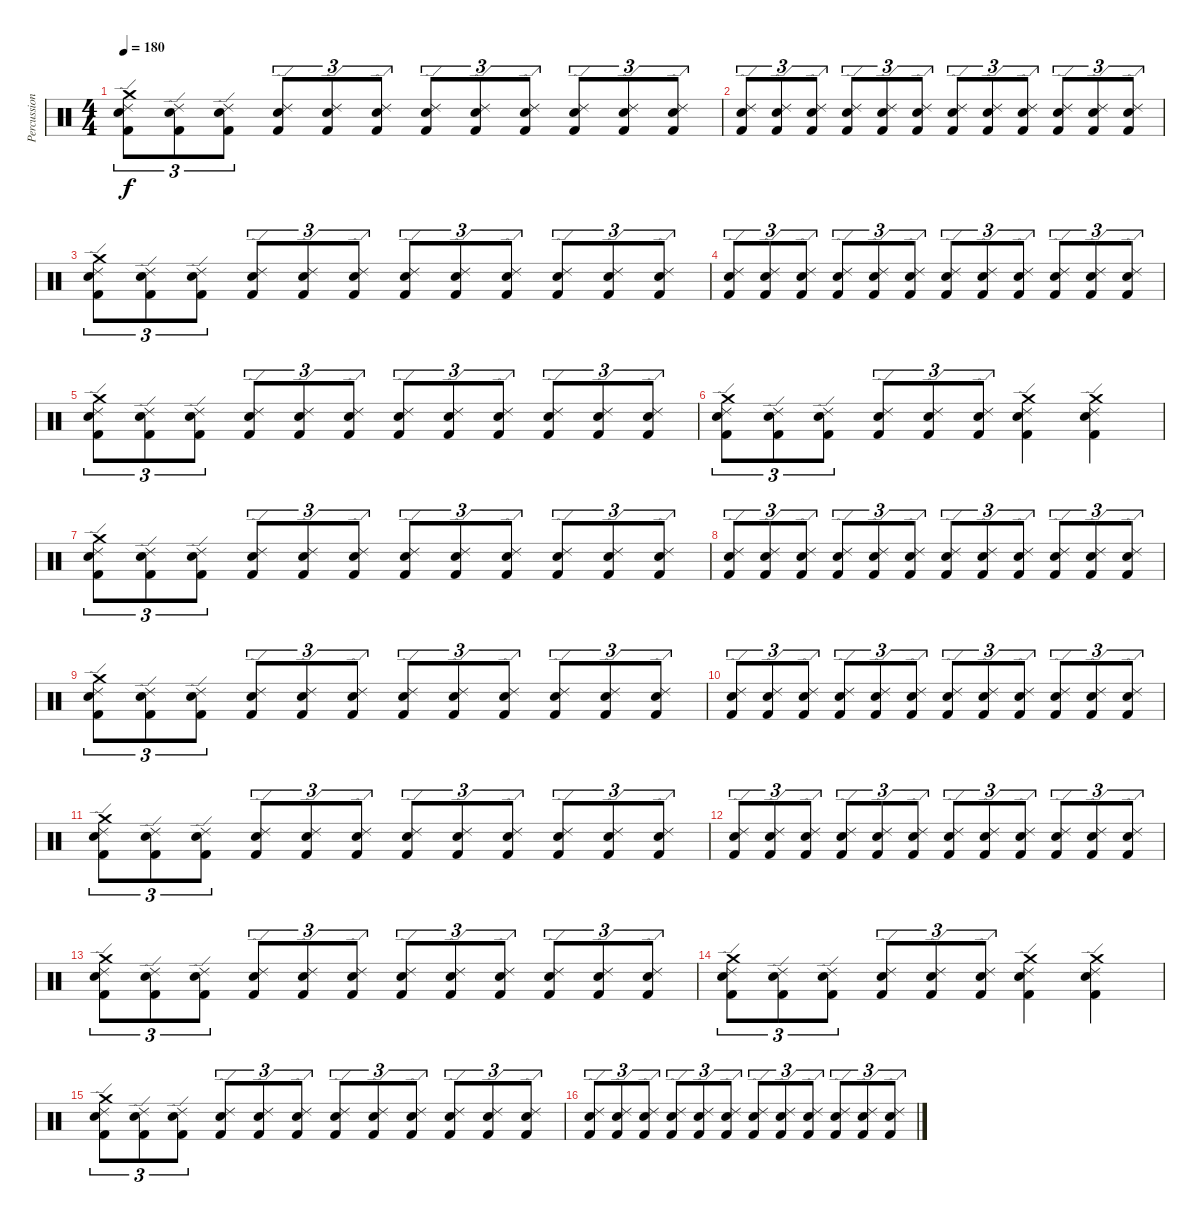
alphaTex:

\track ("Percussioni" "Percussion") {instrument percussion}
\staff {score}
\articulation defaults
\ts (4 4)
\tempo 180
\clef neutral
\ks c
("Crash medium (hit)" "Ride (edge) 2" "Snare (hit) 2" "Kick (hit) 2").8{tu (3 2) dy f} ("Ride (edge) 2" "Snare (hit) 2" "Kick (hit) 2").8{tu (3 2)} ("Ride (edge) 2" "Snare (hit) 2" "Kick (hit) 2").8{tu (3 2)} ("Ride (edge) 2" "Snare (hit) 2" "Kick (hit) 2").8{tu (3 2)} ("Ride (edge) 2" "Snare (hit) 2" "Kick (hit) 2").8{tu (3 2)} ("Ride (edge) 2" "Snare (hit) 2" "Kick (hit) 2").8{tu (3 2)} ("Ride (edge) 2" "Snare (hit) 2" "Kick (hit) 2").8{tu (3 2)} ("Ride (edge) 2" "Snare (hit) 2" "Kick (hit) 2").8{tu (3 2)} ("Ride (edge) 2" "Snare (hit) 2" "Kick (hit) 2").8{tu (3 2)} ("Ride (edge) 2" "Snare (hit) 2" "Kick (hit) 2").8{tu (3 2)} ("Ride (edge) 2" "Snare (hit) 2" "Kick (hit) 2").8{tu (3 2)} ("Ride (edge) 2" "Snare (hit) 2" "Kick (hit) 2").8{tu (3 2)} |
("Ride (edge) 2" "Snare (hit) 2" "Kick (hit) 2").8{tu (3 2)} ("Ride (edge) 2" "Snare (hit) 2" "Kick (hit) 2").8{tu (3 2)} ("Ride (edge) 2" "Snare (hit) 2" "Kick (hit) 2").8{tu (3 2)} ("Ride (edge) 2" "Snare (hit) 2" "Kick (hit) 2").8{tu (3 2)} ("Ride (edge) 2" "Snare (hit) 2" "Kick (hit) 2").8{tu (3 2)} ("Ride (edge) 2" "Snare (hit) 2" "Kick (hit) 2").8{tu (3 2)} ("Ride (edge) 2" "Snare (hit) 2" "Kick (hit) 2").8{tu (3 2)} ("Ride (edge) 2" "Snare (hit) 2" "Kick (hit) 2").8{tu (3 2)} ("Ride (edge) 2" "Snare (hit) 2" "Kick (hit) 2").8{tu (3 2)} ("Ride (edge) 2" "Snare (hit) 2" "Kick (hit) 2").8{tu (3 2)} ("Ride (edge) 2" "Snare (hit) 2" "Kick (hit) 2").8{tu (3 2)} ("Ride (edge) 2" "Snare (hit) 2" "Kick (hit) 2").8{tu (3 2)} |
("Crash medium (hit)" "Ride (edge) 2" "Snare (hit) 2" "Kick (hit) 2").8{tu (3 2)} ("Ride (edge) 2" "Snare (hit) 2" "Kick (hit) 2").8{tu (3 2)} ("Ride (edge) 2" "Snare (hit) 2" "Kick (hit) 2").8{tu (3 2)} ("Ride (edge) 2" "Snare (hit) 2" "Kick (hit) 2").8{tu (3 2)} ("Ride (edge) 2" "Snare (hit) 2" "Kick (hit) 2").8{tu (3 2)} ("Ride (edge) 2" "Snare (hit) 2" "Kick (hit) 2").8{tu (3 2)} ("Ride (edge) 2" "Snare (hit) 2" "Kick (hit) 2").8{tu (3 2)} ("Ride (edge) 2" "Snare (hit) 2" "Kick (hit) 2").8{tu (3 2)} ("Ride (edge) 2" "Snare (hit) 2" "Kick (hit) 2").8{tu (3 2)} ("Ride (edge) 2" "Snare (hit) 2" "Kick (hit) 2").8{tu (3 2)} ("Ride (edge) 2" "Snare (hit) 2" "Kick (hit) 2").8{tu (3 2)} ("Ride (edge) 2" "Snare (hit) 2" "Kick (hit) 2").8{tu (3 2)} |
("Ride (edge) 2" "Snare (hit) 2" "Kick (hit) 2").8{tu (3 2)} ("Ride (edge) 2" "Snare (hit) 2" "Kick (hit) 2").8{tu (3 2)} ("Ride (edge) 2" "Snare (hit) 2" "Kick (hit) 2").8{tu (3 2)} ("Ride (edge) 2" "Snare (hit) 2" "Kick (hit) 2").8{tu (3 2)} ("Ride (edge) 2" "Snare (hit) 2" "Kick (hit) 2").8{tu (3 2)} ("Ride (edge) 2" "Snare (hit) 2" "Kick (hit) 2").8{tu (3 2)} ("Ride (edge) 2" "Snare (hit) 2" "Kick (hit) 2").8{tu (3 2)} ("Ride (edge) 2" "Snare (hit) 2" "Kick (hit) 2").8{tu (3 2)} ("Ride (edge) 2" "Snare (hit) 2" "Kick (hit) 2").8{tu (3 2)} ("Ride (edge) 2" "Snare (hit) 2" "Kick (hit) 2").8{tu (3 2)} ("Ride (edge) 2" "Snare (hit) 2" "Kick (hit) 2").8{tu (3 2)} ("Ride (edge) 2" "Snare (hit) 2" "Kick (hit) 2").8{tu (3 2)} |
("Crash medium (hit)" "Ride (edge) 2" "Snare (hit) 2" "Kick (hit) 2").8{tu (3 2)} ("Ride (edge) 2" "Snare (hit) 2" "Kick (hit) 2").8{tu (3 2)} ("Ride (edge) 2" "Snare (hit) 2" "Kick (hit) 2").8{tu (3 2)} ("Ride (edge) 2" "Snare (hit) 2" "Kick (hit) 2").8{tu (3 2)} ("Ride (edge) 2" "Snare (hit) 2" "Kick (hit) 2").8{tu (3 2)} ("Ride (edge) 2" "Snare (hit) 2" "Kick (hit) 2").8{tu (3 2)} ("Ride (edge) 2" "Snare (hit) 2" "Kick (hit) 2").8{tu (3 2)} ("Ride (edge) 2" "Snare (hit) 2" "Kick (hit) 2").8{tu (3 2)} ("Ride (edge) 2" "Snare (hit) 2" "Kick (hit) 2").8{tu (3 2)} ("Ride (edge) 2" "Snare (hit) 2" "Kick (hit) 2").8{tu (3 2)} ("Ride (edge) 2" "Snare (hit) 2" "Kick (hit) 2").8{tu (3 2)} ("Ride (edge) 2" "Snare (hit) 2" "Kick (hit) 2").8{tu (3 2)} |
("Crash medium (hit)" "Ride (edge) 2" "Snare (hit) 2" "Kick (hit) 2").8{tu (3 2)} ("Ride (edge) 2" "Snare (hit) 2" "Kick (hit) 2").8{tu (3 2)} ("Ride (edge) 2" "Snare (hit) 2" "Kick (hit) 2").8{tu (3 2)} ("Ride (edge) 2" "Snare (hit) 2" "Kick (hit) 2").8{tu (3 2)} ("Ride (edge) 2" "Snare (hit) 2" "Kick (hit) 2").8{tu (3 2)} ("Ride (edge) 2" "Snare (hit) 2" "Kick (hit) 2").8{tu (3 2)} ("Crash medium (hit)" "Ride (edge) 2" "Snare (hit) 2" "Kick (hit) 2").4 ("Crash medium (hit)" "Ride (edge) 2" "Snare (hit) 2" "Kick (hit) 2").4 |
("Crash medium (hit)" "Ride (edge) 2" "Snare (hit) 2" "Kick (hit) 2").8{tu (3 2)} ("Ride (edge) 2" "Snare (hit) 2" "Kick (hit) 2").8{tu (3 2)} ("Ride (edge) 2" "Snare (hit) 2" "Kick (hit) 2").8{tu (3 2)} ("Ride (edge) 2" "Snare (hit) 2" "Kick (hit) 2").8{tu (3 2)} ("Ride (edge) 2" "Snare (hit) 2" "Kick (hit) 2").8{tu (3 2)} ("Ride (edge) 2" "Snare (hit) 2" "Kick (hit) 2").8{tu (3 2)} ("Ride (edge) 2" "Snare (hit) 2" "Kick (hit) 2").8{tu (3 2)} ("Ride (edge) 2" "Snare (hit) 2" "Kick (hit) 2").8{tu (3 2)} ("Ride (edge) 2" "Snare (hit) 2" "Kick (hit) 2").8{tu (3 2)} ("Ride (edge) 2" "Snare (hit) 2" "Kick (hit) 2").8{tu (3 2)} ("Ride (edge) 2" "Snare (hit) 2" "Kick (hit) 2").8{tu (3 2)} ("Ride (edge) 2" "Snare (hit) 2" "Kick (hit) 2").8{tu (3 2)} |
("Ride (edge) 2" "Snare (hit) 2" "Kick (hit) 2").8{tu (3 2)} ("Ride (edge) 2" "Snare (hit) 2" "Kick (hit) 2").8{tu (3 2)} ("Ride (edge) 2" "Snare (hit) 2" "Kick (hit) 2").8{tu (3 2)} ("Ride (edge) 2" "Snare (hit) 2" "Kick (hit) 2").8{tu (3 2)} ("Ride (edge) 2" "Snare (hit) 2" "Kick (hit) 2").8{tu (3 2)} ("Ride (edge) 2" "Snare (hit) 2" "Kick (hit) 2").8{tu (3 2)} ("Ride (edge) 2" "Snare (hit) 2" "Kick (hit) 2").8{tu (3 2)} ("Ride (edge) 2" "Snare (hit) 2" "Kick (hit) 2").8{tu (3 2)} ("Ride (edge) 2" "Snare (hit) 2" "Kick (hit) 2").8{tu (3 2)} ("Ride (edge) 2" "Snare (hit) 2" "Kick (hit) 2").8{tu (3 2)} ("Ride (edge) 2" "Snare (hit) 2" "Kick (hit) 2").8{tu (3 2)} ("Ride (edge) 2" "Snare (hit) 2" "Kick (hit) 2").8{tu (3 2)} |
("Crash medium (hit)" "Ride (edge) 2" "Snare (hit) 2" "Kick (hit) 2").8{tu (3 2)} ("Ride (edge) 2" "Snare (hit) 2" "Kick (hit) 2").8{tu (3 2)} ("Ride (edge) 2" "Snare (hit) 2" "Kick (hit) 2").8{tu (3 2)} ("Ride (edge) 2" "Snare (hit) 2" "Kick (hit) 2").8{tu (3 2)} ("Ride (edge) 2" "Snare (hit) 2" "Kick (hit) 2").8{tu (3 2)} ("Ride (edge) 2" "Snare (hit) 2" "Kick (hit) 2").8{tu (3 2)} ("Ride (edge) 2" "Snare (hit) 2" "Kick (hit) 2").8{tu (3 2)} ("Ride (edge) 2" "Snare (hit) 2" "Kick (hit) 2").8{tu (3 2)} ("Ride (edge) 2" "Snare (hit) 2" "Kick (hit) 2").8{tu (3 2)} ("Ride (edge) 2" "Snare (hit) 2" "Kick (hit) 2").8{tu (3 2)} ("Ride (edge) 2" "Snare (hit) 2" "Kick (hit) 2").8{tu (3 2)} ("Ride (edge) 2" "Snare (hit) 2" "Kick (hit) 2").8{tu (3 2)} |
("Ride (edge) 2" "Snare (hit) 2" "Kick (hit) 2").8{tu (3 2)} ("Ride (edge) 2" "Snare (hit) 2" "Kick (hit) 2").8{tu (3 2)} ("Ride (edge) 2" "Snare (hit) 2" "Kick (hit) 2").8{tu (3 2)} ("Ride (edge) 2" "Snare (hit) 2" "Kick (hit) 2").8{tu (3 2)} ("Ride (edge) 2" "Snare (hit) 2" "Kick (hit) 2").8{tu (3 2)} ("Ride (edge) 2" "Snare (hit) 2" "Kick (hit) 2").8{tu (3 2)} ("Ride (edge) 2" "Snare (hit) 2" "Kick (hit) 2").8{tu (3 2)} ("Ride (edge) 2" "Snare (hit) 2" "Kick (hit) 2").8{tu (3 2)} ("Ride (edge) 2" "Snare (hit) 2" "Kick (hit) 2").8{tu (3 2)} ("Ride (edge) 2" "Snare (hit) 2" "Kick (hit) 2").8{tu (3 2)} ("Ride (edge) 2" "Snare (hit) 2" "Kick (hit) 2").8{tu (3 2)} ("Ride (edge) 2" "Snare (hit) 2" "Kick (hit) 2").8{tu (3 2)} |
("Crash medium (hit)" "Ride (edge) 2" "Snare (hit) 2" "Kick (hit) 2").8{tu (3 2)} ("Ride (edge) 2" "Snare (hit) 2" "Kick (hit) 2").8{tu (3 2)} ("Ride (edge) 2" "Snare (hit) 2" "Kick (hit) 2").8{tu (3 2)} ("Ride (edge) 2" "Snare (hit) 2" "Kick (hit) 2").8{tu (3 2)} ("Ride (edge) 2" "Snare (hit) 2" "Kick (hit) 2").8{tu (3 2)} ("Ride (edge) 2" "Snare (hit) 2" "Kick (hit) 2").8{tu (3 2)} ("Ride (edge) 2" "Snare (hit) 2" "Kick (hit) 2").8{tu (3 2)} ("Ride (edge) 2" "Snare (hit) 2" "Kick (hit) 2").8{tu (3 2)} ("Ride (edge) 2" "Snare (hit) 2" "Kick (hit) 2").8{tu (3 2)} ("Ride (edge) 2" "Snare (hit) 2" "Kick (hit) 2").8{tu (3 2)} ("Ride (edge) 2" "Snare (hit) 2" "Kick (hit) 2").8{tu (3 2)} ("Ride (edge) 2" "Snare (hit) 2" "Kick (hit) 2").8{tu (3 2)} |
("Ride (edge) 2" "Snare (hit) 2" "Kick (hit) 2").8{tu (3 2)} ("Ride (edge) 2" "Snare (hit) 2" "Kick (hit) 2").8{tu (3 2)} ("Ride (edge) 2" "Snare (hit) 2" "Kick (hit) 2").8{tu (3 2)} ("Ride (edge) 2" "Snare (hit) 2" "Kick (hit) 2").8{tu (3 2)} ("Ride (edge) 2" "Snare (hit) 2" "Kick (hit) 2").8{tu (3 2)} ("Ride (edge) 2" "Snare (hit) 2" "Kick (hit) 2").8{tu (3 2)} ("Ride (edge) 2" "Snare (hit) 2" "Kick (hit) 2").8{tu (3 2)} ("Ride (edge) 2" "Snare (hit) 2" "Kick (hit) 2").8{tu (3 2)} ("Ride (edge) 2" "Snare (hit) 2" "Kick (hit) 2").8{tu (3 2)} ("Ride (edge) 2" "Snare (hit) 2" "Kick (hit) 2").8{tu (3 2)} ("Ride (edge) 2" "Snare (hit) 2" "Kick (hit) 2").8{tu (3 2)} ("Ride (edge) 2" "Snare (hit) 2" "Kick (hit) 2").8{tu (3 2)} |
("Crash medium (hit)" "Ride (edge) 2" "Snare (hit) 2" "Kick (hit) 2").8{tu (3 2)} ("Ride (edge) 2" "Snare (hit) 2" "Kick (hit) 2").8{tu (3 2)} ("Ride (edge) 2" "Snare (hit) 2" "Kick (hit) 2").8{tu (3 2)} ("Ride (edge) 2" "Snare (hit) 2" "Kick (hit) 2").8{tu (3 2)} ("Ride (edge) 2" "Snare (hit) 2" "Kick (hit) 2").8{tu (3 2)} ("Ride (edge) 2" "Snare (hit) 2" "Kick (hit) 2").8{tu (3 2)} ("Ride (edge) 2" "Snare (hit) 2" "Kick (hit) 2").8{tu (3 2)} ("Ride (edge) 2" "Snare (hit) 2" "Kick (hit) 2").8{tu (3 2)} ("Ride (edge) 2" "Snare (hit) 2" "Kick (hit) 2").8{tu (3 2)} ("Ride (edge) 2" "Snare (hit) 2" "Kick (hit) 2").8{tu (3 2)} ("Ride (edge) 2" "Snare (hit) 2" "Kick (hit) 2").8{tu (3 2)} ("Ride (edge) 2" "Snare (hit) 2" "Kick (hit) 2").8{tu (3 2)} |
("Crash medium (hit)" "Ride (edge) 2" "Snare (hit) 2" "Kick (hit) 2").8{tu (3 2)} ("Ride (edge) 2" "Snare (hit) 2" "Kick (hit) 2").8{tu (3 2)} ("Ride (edge) 2" "Snare (hit) 2" "Kick (hit) 2").8{tu (3 2)} ("Ride (edge) 2" "Snare (hit) 2" "Kick (hit) 2").8{tu (3 2)} ("Ride (edge) 2" "Snare (hit) 2" "Kick (hit) 2").8{tu (3 2)} ("Ride (edge) 2" "Snare (hit) 2" "Kick (hit) 2").8{tu (3 2)} ("Crash medium (hit)" "Ride (edge) 2" "Snare (hit) 2" "Kick (hit) 2").4 ("Crash medium (hit)" "Ride (edge) 2" "Snare (hit) 2" "Kick (hit) 2").4 |
("Crash medium (hit)" "Ride (edge) 2" "Snare (hit) 2" "Kick (hit) 2").8{tu (3 2)} ("Ride (edge) 2" "Snare (hit) 2" "Kick (hit) 2").8{tu (3 2)} ("Ride (edge) 2" "Snare (hit) 2" "Kick (hit) 2").8{tu (3 2)} ("Ride (edge) 2" "Snare (hit) 2" "Kick (hit) 2").8{tu (3 2)} ("Ride (edge) 2" "Snare (hit) 2" "Kick (hit) 2").8{tu (3 2)} ("Ride (edge) 2" "Snare (hit) 2" "Kick (hit) 2").8{tu (3 2)} ("Ride (edge) 2" "Snare (hit) 2" "Kick (hit) 2").8{tu (3 2)} ("Ride (edge) 2" "Snare (hit) 2" "Kick (hit) 2").8{tu (3 2)} ("Ride (edge) 2" "Snare (hit) 2" "Kick (hit) 2").8{tu (3 2)} ("Ride (edge) 2" "Snare (hit) 2" "Kick (hit) 2").8{tu (3 2)} ("Ride (edge) 2" "Snare (hit) 2" "Kick (hit) 2").8{tu (3 2)} ("Ride (edge) 2" "Snare (hit) 2" "Kick (hit) 2").8{tu (3 2)} |
("Ride (edge) 2" "Snare (hit) 2" "Kick (hit) 2").8{tu (3 2)} ("Ride (edge) 2" "Snare (hit) 2" "Kick (hit) 2").8{tu (3 2)} ("Ride (edge) 2" "Snare (hit) 2" "Kick (hit) 2").8{tu (3 2)} ("Ride (edge) 2" "Snare (hit) 2" "Kick (hit) 2").8{tu (3 2)} ("Ride (edge) 2" "Snare (hit) 2" "Kick (hit) 2").8{tu (3 2)} ("Ride (edge) 2" "Snare (hit) 2" "Kick (hit) 2").8{tu (3 2)} ("Ride (edge) 2" "Snare (hit) 2" "Kick (hit) 2").8{tu (3 2)} ("Ride (edge) 2" "Snare (hit) 2" "Kick (hit) 2").8{tu (3 2)} ("Ride (edge) 2" "Snare (hit) 2" "Kick (hit) 2").8{tu (3 2)} ("Ride (edge) 2" "Snare (hit) 2" "Kick (hit) 2").8{tu (3 2)} ("Ride (edge) 2" "Snare (hit) 2" "Kick (hit) 2").8{tu (3 2)} ("Ride (edge) 2" "Snare (hit) 2" "Kick (hit) 2").8{tu (3 2)}
